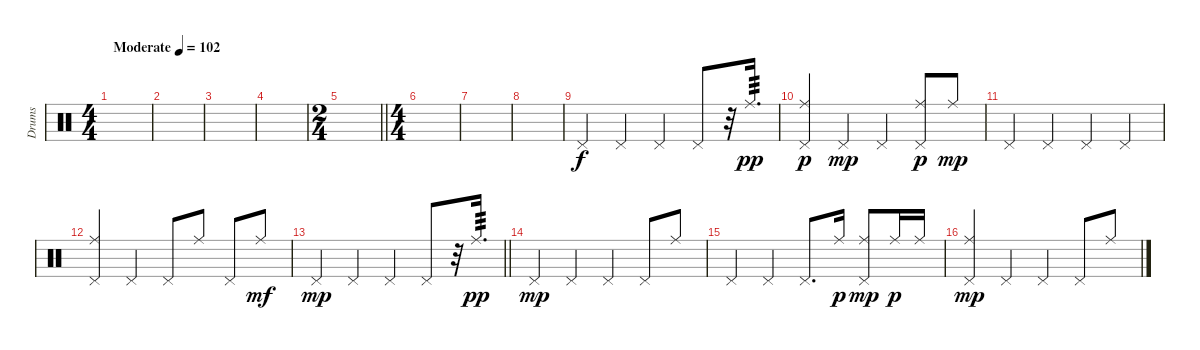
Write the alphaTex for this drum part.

\track ("Drums" "Drums") {instrument percussion}
\staff {score}
\articulation defaults
\ts (4 4)
\tempo (102 "Moderate")
\clef neutral
\ks c
|
|
|
|
\ts (2 4)
\barLineRight lightlight
|
\ts (4 4)
|
|
|
"Pedal Hi-Hat (hit)".4 "Pedal Hi-Hat (hit)".4 "Pedal Hi-Hat (hit)".4 "Pedal Hi-Hat (hit)".8 r.32 "Ride (middle)".16{d tp 3 dy pp} |
("Pedal Hi-Hat (hit)" "Ride (middle)").4{dy p} "Pedal Hi-Hat (hit)".4{dy mp} "Pedal Hi-Hat (hit)".4 ("Pedal Hi-Hat (hit)" "Ride (middle)").8{dy p} "Ride (middle)".8{dy mp} |
"Pedal Hi-Hat (hit)".4 "Pedal Hi-Hat (hit)".4 "Pedal Hi-Hat (hit)".4 "Pedal Hi-Hat (hit)".4 |
("Pedal Hi-Hat (hit)" "Ride (middle)").4 "Pedal Hi-Hat (hit)".4 "Pedal Hi-Hat (hit)".8 "Ride (middle)".8 "Pedal Hi-Hat (hit)".8 "Ride (middle)".8{dy mf} |
\barLineRight lightlight "Pedal Hi-Hat (hit)".4{dy mp} "Pedal Hi-Hat (hit)".4 "Pedal Hi-Hat (hit)".4 "Pedal Hi-Hat (hit)".8
r.32 "Ride (middle)".16{d tp 3 dy pp} |
"Pedal Hi-Hat (hit)".4{dy mp} "Pedal Hi-Hat (hit)".4 "Pedal Hi-Hat (hit)".4 "Pedal Hi-Hat (hit)".8 "Ride (middle)".8 |
"Pedal Hi-Hat (hit)".4 "Pedal Hi-Hat (hit)".4 "Pedal Hi-Hat (hit)".8{d} "Ride (middle)".16{dy p} ("Pedal Hi-Hat (hit)" "Ride (middle)").8{dy mp} "Ride (middle)".16{dy p} "Ride (middle)".16 |
("Pedal Hi-Hat (hit)" "Ride (middle)").4{dy mp} "Pedal Hi-Hat (hit)".4 "Pedal Hi-Hat (hit)".4 "Pedal Hi-Hat (hit)".8 "Ride (middle)".8
